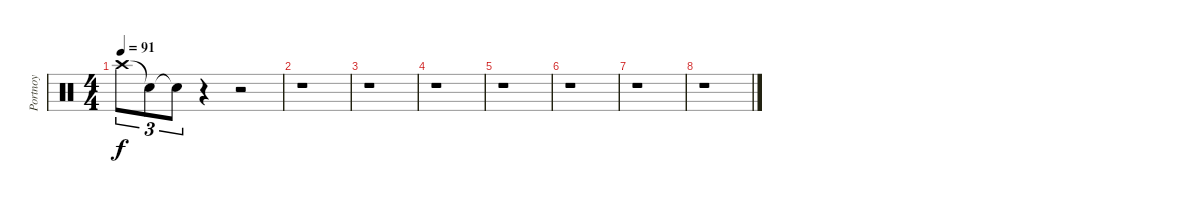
\track ("Portnoy" "Portnoy") {instrument percussion}
\staff {score}
\articulation defaults
\ts (4 4)
\tempo 91
\clef neutral
\ks c "Crash high (hit)".8{tu (3 2) dy f} "Snare (hit)"{t}.8{tu (3 2)} "Snare (hit)"{t}.8{tu (3 2)}
r.4 r.2 |
r.1 |
r.1 |
r.1 |
r.1 |
r.1 |
r.1 |
r.1
